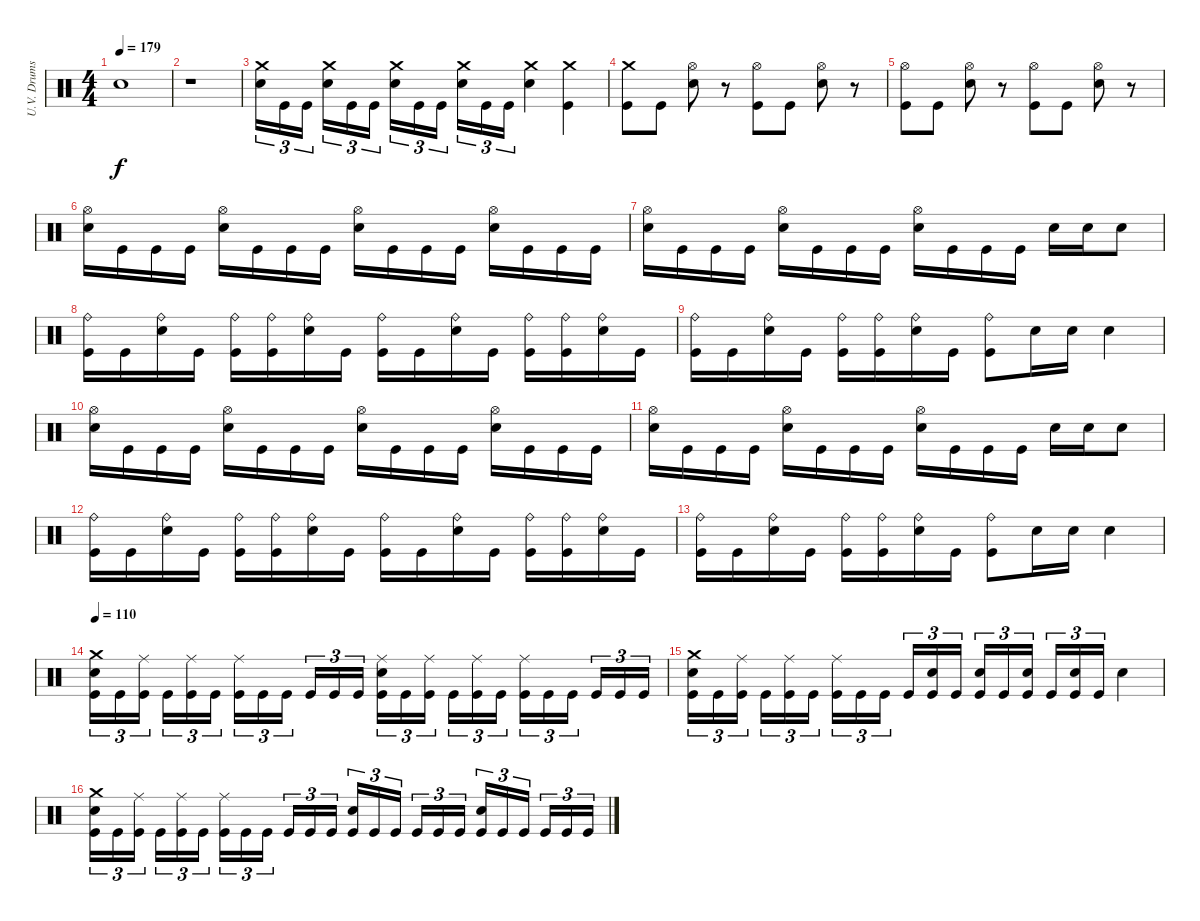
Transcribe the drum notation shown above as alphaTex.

\track ("U.V. Drums" "U.V. Drums") {instrument percussion}
\staff {score}
\articulation defaults
\ts (4 4)
\tempo 179
\clef neutral
\ks c "Electric Snare (hit)".1{dy f}
|
r.1 |
("Crash medium (hit)" "Electric Snare (hit)").16{tu (3 2)} "Kick (hit)".16{tu (3 2)} "Kick (hit)".16{tu (3 2)} ("Crash medium (hit)" "Electric Snare (hit)").16{tu (3 2)} "Kick (hit)".16{tu (3 2)} "Kick (hit)".16{tu (3 2)} ("Crash medium (hit)" "Electric Snare (hit)").16{tu (3 2)} "Kick (hit)".16{tu (3 2)} "Kick (hit)".16{tu (3 2)} ("Crash medium (hit)" "Electric Snare (hit)").16{tu (3 2)} "Kick (hit)".16{tu (3 2)} "Kick (hit)".16{tu (3 2)} ("Crash medium (hit)" "Electric Snare (hit)").4 ("Crash medium (hit)" "Kick (hit)").4 |
("Crash medium (hit)" "Kick (hit)").8 "Kick (hit)".8 ("Hi-Hat (open)" "Electric Snare (hit)").8 r.8 ("Hi-Hat (open)" "Kick (hit)").8 "Kick (hit)".8 ("Hi-Hat (open)" "Electric Snare (hit)").8 r.8 |
("Hi-Hat (open)" "Kick (hit)").8 "Kick (hit)".8 ("Hi-Hat (open)" "Electric Snare (hit)").8 r.8 ("Hi-Hat (open)" "Kick (hit)").8 "Kick (hit)".8 ("Hi-Hat (open)" "Electric Snare (hit)").8 r.8 |
("Hi-Hat (open)" "Electric Snare (hit)").16 "Kick (hit)".16 "Kick (hit)".16 "Kick (hit)".16 ("Hi-Hat (open)" "Electric Snare (hit)").16 "Kick (hit)".16 "Kick (hit)".16 "Kick (hit)".16 ("Hi-Hat (open)" "Electric Snare (hit)").16 "Kick (hit)".16 "Kick (hit)".16 "Kick (hit)".16 ("Hi-Hat (open)" "Electric Snare (hit)").16 "Kick (hit)".16 "Kick (hit)".16 "Kick (hit)".16 |
("Hi-Hat (open)" "Electric Snare (hit)").16 "Kick (hit)".16 "Kick (hit)".16 "Kick (hit)".16 ("Hi-Hat (open)" "Electric Snare (hit)").16 "Kick (hit)".16 "Kick (hit)".16 "Kick (hit)".16 ("Hi-Hat (open)" "Electric Snare (hit)").16 "Kick (hit)".16 "Kick (hit)".16 "Kick (hit)".16 "Electric Snare (hit)".16 "Electric Snare (hit)".16 "Electric Snare (hit)".8 |
("Ride (bell)" "Kick (hit)").16 "Kick (hit)".16 ("Ride (bell)" "Electric Snare (hit)").16 "Kick (hit)".16 ("Ride (bell)" "Kick (hit)").16 ("Ride (bell)" "Kick (hit)").16 ("Ride (bell)" "Electric Snare (hit)").16 "Kick (hit)".16 ("Ride (bell)" "Kick (hit)").16 "Kick (hit)".16 ("Ride (bell)" "Electric Snare (hit)").16 "Kick (hit)".16 ("Ride (bell)" "Kick (hit)").16 ("Ride (bell)" "Kick (hit)").16 ("Ride (bell)" "Electric Snare (hit)").16 "Kick (hit)".16 |
("Ride (bell)" "Kick (hit)").16 "Kick (hit)".16 ("Ride (bell)" "Electric Snare (hit)").16 "Kick (hit)".16 ("Ride (bell)" "Kick (hit)").16 ("Ride (bell)" "Kick (hit)").16 ("Ride (bell)" "Electric Snare (hit)").16 "Kick (hit)".16 ("Ride (bell)" "Kick (hit)").8 "Electric Snare (hit)".16 "Electric Snare (hit)".16 "Electric Snare (hit)".4 |
("Hi-Hat (open)" "Electric Snare (hit)").16 "Kick (hit)".16 "Kick (hit)".16 "Kick (hit)".16 ("Hi-Hat (open)" "Electric Snare (hit)").16 "Kick (hit)".16 "Kick (hit)".16 "Kick (hit)".16 ("Hi-Hat (open)" "Electric Snare (hit)").16 "Kick (hit)".16 "Kick (hit)".16 "Kick (hit)".16 ("Hi-Hat (open)" "Electric Snare (hit)").16 "Kick (hit)".16 "Kick (hit)".16 "Kick (hit)".16 |
("Hi-Hat (open)" "Electric Snare (hit)").16 "Kick (hit)".16 "Kick (hit)".16 "Kick (hit)".16 ("Hi-Hat (open)" "Electric Snare (hit)").16 "Kick (hit)".16 "Kick (hit)".16 "Kick (hit)".16 ("Hi-Hat (open)" "Electric Snare (hit)").16 "Kick (hit)".16 "Kick (hit)".16 "Kick (hit)".16 "Electric Snare (hit)".16 "Electric Snare (hit)".16 "Electric Snare (hit)".8 |
("Ride (bell)" "Kick (hit)").16 "Kick (hit)".16 ("Ride (bell)" "Electric Snare (hit)").16 "Kick (hit)".16 ("Ride (bell)" "Kick (hit)").16 ("Ride (bell)" "Kick (hit)").16 ("Ride (bell)" "Electric Snare (hit)").16 "Kick (hit)".16 ("Ride (bell)" "Kick (hit)").16 "Kick (hit)".16 ("Ride (bell)" "Electric Snare (hit)").16 "Kick (hit)".16 ("Ride (bell)" "Kick (hit)").16 ("Ride (bell)" "Kick (hit)").16 ("Ride (bell)" "Electric Snare (hit)").16 "Kick (hit)".16 |
("Ride (bell)" "Kick (hit)").16 "Kick (hit)".16 ("Ride (bell)" "Electric Snare (hit)").16 "Kick (hit)".16 ("Ride (bell)" "Kick (hit)").16 ("Ride (bell)" "Kick (hit)").16 ("Ride (bell)" "Electric Snare (hit)").16 "Kick (hit)".16 ("Ride (bell)" "Kick (hit)").8 "Electric Snare (hit)".16 "Electric Snare (hit)".16 "Electric Snare (hit)".4 |
\tempo 110
("Crash medium (hit)" "Electric Snare (hit)" "Kick (hit)").16{tu (3 2)} "Kick (hit)".16{tu (3 2)} ("Ride (middle)" "Kick (hit)").16{tu (3 2)} "Kick (hit)".16{tu (3 2)} ("Ride (middle)" "Kick (hit)").16{tu (3 2)} "Kick (hit)".16{tu (3 2)} ("Ride (middle)" "Kick (hit)").16{tu (3 2)} "Kick (hit)".16{tu (3 2)} "Kick (hit)".16{tu (3 2)} "Kick (hit)".16{tu (3 2)} "Kick (hit)".16{tu (3 2)} "Kick (hit)".16{tu (3 2)} ("Ride (middle)" "Electric Snare (hit)" "Kick (hit)").16{tu (3 2)} "Kick (hit)".16{tu (3 2)} ("Ride (middle)" "Kick (hit)").16{tu (3 2)} "Kick (hit)".16{tu (3 2)} ("Ride (middle)" "Kick (hit)").16{tu (3 2)} "Kick (hit)".16{tu (3 2)} ("Ride (middle)" "Kick (hit)").16{tu (3 2)} "Kick (hit)".16{tu (3 2)} "Kick (hit)".16{tu (3 2)} "Kick (hit)".16{tu (3 2)} "Kick (hit)".16{tu (3 2)} "Kick (hit)".16{tu (3 2)} |
("Crash medium (hit)" "Electric Snare (hit)" "Kick (hit)").16{tu (3 2)} "Kick (hit)".16{tu (3 2)} ("Ride (middle)" "Kick (hit)").16{tu (3 2)} "Kick (hit)".16{tu (3 2)} ("Ride (middle)" "Kick (hit)").16{tu (3 2)} "Kick (hit)".16{tu (3 2)} ("Ride (middle)" "Kick (hit)").16{tu (3 2)} "Kick (hit)".16{tu (3 2)} "Kick (hit)".16{tu (3 2)} "Kick (hit)".16{tu (3 2)} ("Electric Snare (hit)" "Kick (hit)").16{tu (3 2)} "Kick (hit)".16{tu (3 2)} ("Electric Snare (hit)" "Kick (hit)").16{tu (3 2)} "Kick (hit)".16{tu (3 2)} ("Electric Snare (hit)" "Kick (hit)").16{tu (3 2)} "Kick (hit)".16{tu (3 2)} ("Electric Snare (hit)" "Kick (hit)").16{tu (3 2)} "Kick (hit)".16{tu (3 2)} "Electric Snare (hit)".4 |
("Crash medium (hit)" "Electric Snare (hit)" "Kick (hit)").16{tu (3 2)} "Kick (hit)".16{tu (3 2)} ("Ride (middle)" "Kick (hit)").16{tu (3 2)} "Kick (hit)".16{tu (3 2)} ("Ride (middle)" "Kick (hit)").16{tu (3 2)} "Kick (hit)".16{tu (3 2)} ("Ride (middle)" "Kick (hit)").16{tu (3 2)} "Kick (hit)".16{tu (3 2)} "Kick (hit)".16{tu (3 2)} "Kick (hit)".16{tu (3 2)} "Kick (hit)".16{tu (3 2)} "Kick (hit)".16{tu (3 2)} ("Electric Snare (hit)" "Kick (hit)").16{tu (3 2)} "Kick (hit)".16{tu (3 2)} "Kick (hit)".16{tu (3 2)} "Kick (hit)".16{tu (3 2)} "Kick (hit)".16{tu (3 2)} "Kick (hit)".16{tu (3 2)} ("Electric Snare (hit)" "Kick (hit)").16{tu (3 2)} "Kick (hit)".16{tu (3 2)} "Kick (hit)".16{tu (3 2)} "Kick (hit)".16{tu (3 2)} "Kick (hit)".16{tu (3 2)} "Kick (hit)".16{tu (3 2)}
